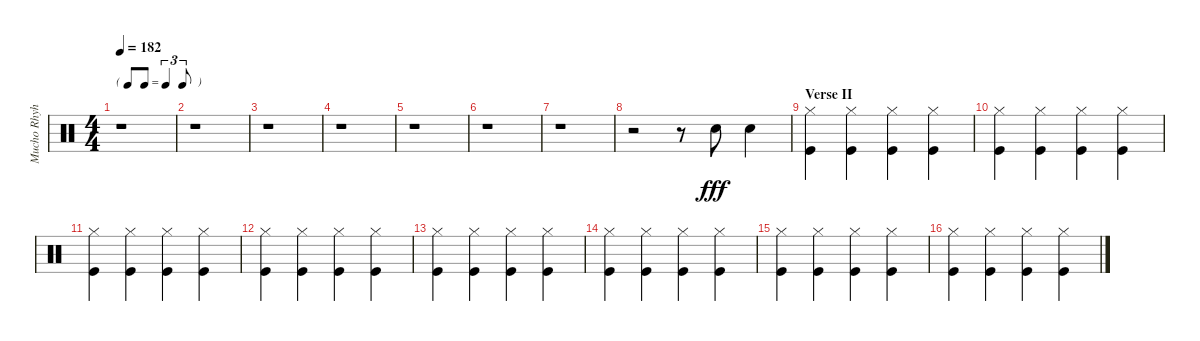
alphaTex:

\track ("Mucho Rhyhtm" "Mucho Rhyh") {instrument percussion}
\staff {score}
\articulation defaults
\ts (4 4)
\tf triplet8th
\tempo 182
\clef neutral
\ks c
r.1{dy fff} |
r.1 |
r.1 |
r.1 |
r.1 |
r.1 |
r.1 |
r.2 r.8 "Snare (hit) 2".8 "Snare (hit) 2".4 |
\section ("" "Verse II")
("Hi-Hat (closed)" "Kick (hit)").4 ("Hi-Hat (closed)" "Kick (hit)").4 ("Hi-Hat (closed)" "Kick (hit)").4 ("Hi-Hat (closed)" "Kick (hit)").4 |
("Hi-Hat (closed)" "Kick (hit)").4 ("Hi-Hat (closed)" "Kick (hit)").4 ("Hi-Hat (closed)" "Kick (hit)").4 ("Hi-Hat (closed)" "Kick (hit)").4 |
("Hi-Hat (closed)" "Kick (hit)").4 ("Hi-Hat (closed)" "Kick (hit)").4 ("Hi-Hat (closed)" "Kick (hit)").4 ("Hi-Hat (closed)" "Kick (hit)").4 |
("Hi-Hat (closed)" "Kick (hit)").4 ("Hi-Hat (closed)" "Kick (hit)").4 ("Hi-Hat (closed)" "Kick (hit)").4 ("Hi-Hat (closed)" "Kick (hit)").4 |
("Hi-Hat (closed)" "Kick (hit)").4 ("Hi-Hat (closed)" "Kick (hit)").4 ("Hi-Hat (closed)" "Kick (hit)").4 ("Hi-Hat (closed)" "Kick (hit)").4 |
("Hi-Hat (closed)" "Kick (hit)").4 ("Hi-Hat (closed)" "Kick (hit)").4 ("Hi-Hat (closed)" "Kick (hit)").4 ("Hi-Hat (closed)" "Kick (hit)").4 |
("Hi-Hat (closed)" "Kick (hit)").4 ("Hi-Hat (closed)" "Kick (hit)").4 ("Hi-Hat (closed)" "Kick (hit)").4 ("Hi-Hat (closed)" "Kick (hit)").4 |
("Hi-Hat (closed)" "Kick (hit)").4 ("Hi-Hat (closed)" "Kick (hit)").4 ("Hi-Hat (closed)" "Kick (hit)").4 ("Hi-Hat (closed)" "Kick (hit)").4
